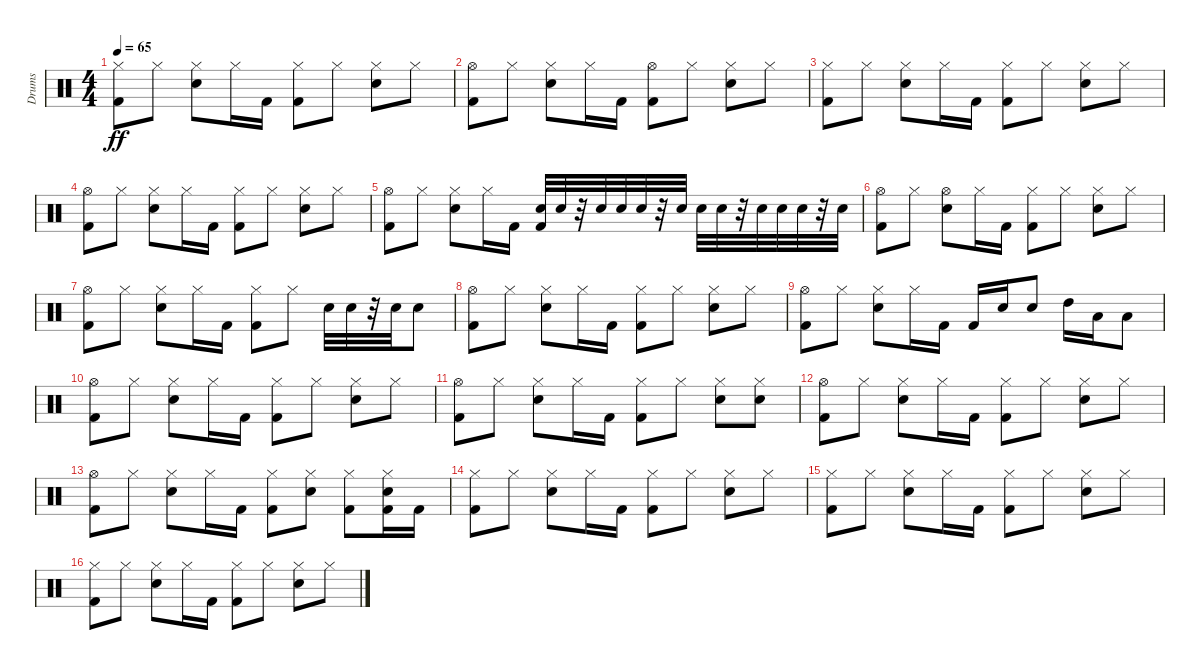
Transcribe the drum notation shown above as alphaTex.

\track ("Drums" "Drums") {instrument percussion}
\staff {score}
\articulation defaults
\ts (4 4)
\tempo 65
\clef neutral
\ks c
("Hi-Hat (closed)" "Kick (hit) 2").8{dy ff} "Hi-Hat (closed)".8 ("Snare (hit) 2" "Hi-Hat (closed)").8 "Hi-Hat (closed)".16 "Kick (hit) 2".16 ("Hi-Hat (closed)" "Kick (hit) 2").8 "Hi-Hat (closed)".8 ("Hi-Hat (closed)" "Snare (hit) 2").8 "Hi-Hat (closed)".8 |
("Hi-Hat (open)" "Kick (hit) 2").8 "Hi-Hat (closed)".8 ("Snare (hit) 2" "Hi-Hat (closed)").8 "Hi-Hat (closed)".16 "Kick (hit) 2".16 ("Hi-Hat (open)" "Kick (hit) 2").8 "Hi-Hat (closed)".8 ("Hi-Hat (closed)" "Snare (hit) 2").8 "Hi-Hat (closed)".8 |
("Hi-Hat (closed)" "Kick (hit) 2").8 "Hi-Hat (closed)".8 ("Snare (hit) 2" "Hi-Hat (closed)").8 "Hi-Hat (closed)".16 "Kick (hit) 2".16 ("Hi-Hat (closed)" "Kick (hit) 2").8 "Hi-Hat (closed)".8 ("Hi-Hat (closed)" "Snare (hit) 2").8 "Hi-Hat (closed)".8 |
("Hi-Hat (open)" "Kick (hit) 2").8 "Hi-Hat (closed)".8 ("Snare (hit) 2" "Hi-Hat (closed)").8 "Hi-Hat (closed)".16 "Kick (hit) 2".16 ("Hi-Hat (closed)" "Kick (hit) 2").8 "Hi-Hat (closed)".8 ("Hi-Hat (closed)" "Snare (hit) 2").8 "Hi-Hat (closed)".8 |
("Hi-Hat (open)" "Kick (hit) 2").8 "Hi-Hat (closed)".8 ("Snare (hit) 2" "Hi-Hat (closed)").8 "Hi-Hat (closed)".16 "Kick (hit) 2".16 ("Electric Snare (hit)" "Kick (hit) 2").32 "Electric Snare (hit)".32 r.32 "Electric Snare (hit)".32 "Electric Snare (hit)".32 "Electric Snare (hit)".32 r.32 "Electric Snare (hit)".32 "Electric Snare (hit)".32 "Electric Snare (hit)".32 r.32 "Electric Snare (hit)".32 "Electric Snare (hit)".32 "Electric Snare (hit)".32 r.32 "Electric Snare (hit)".32 |
("Hi-Hat (open)" "Kick (hit) 2").8 "Hi-Hat (closed)".8 ("Hi-Hat (open)" "Snare (hit) 2").8 "Hi-Hat (closed)".16 "Kick (hit) 2".16 ("Hi-Hat (closed)" "Kick (hit) 2").8 "Hi-Hat (closed)".8 ("Hi-Hat (closed)" "Snare (hit) 2").8 "Hi-Hat (closed)".8 |
("Hi-Hat (open)" "Kick (hit) 2").8 "Hi-Hat (closed)".8 ("Snare (hit) 2" "Hi-Hat (closed)").8 "Hi-Hat (closed)".16 "Kick (hit) 2".16 ("Hi-Hat (closed)" "Kick (hit) 2").8 "Hi-Hat (closed)".8 "Snare (hit) 2".32 "Snare (hit) 2".32 r.32 "Snare (hit) 2".32 "Snare (hit) 2".8 |
("Hi-Hat (open)" "Kick (hit) 2").8 "Hi-Hat (closed)".8 ("Snare (hit) 2" "Hi-Hat (closed)").8 "Hi-Hat (closed)".16 "Kick (hit) 2".16 ("Hi-Hat (closed)" "Kick (hit) 2").8 "Hi-Hat (closed)".8 ("Hi-Hat (closed)" "Snare (hit) 2").8 "Hi-Hat (closed)".8 |
("Hi-Hat (open)" "Kick (hit) 2").8 "Hi-Hat (closed)".8 ("Snare (hit) 2" "Hi-Hat (closed)").8 "Hi-Hat (closed)".16 "Kick (hit) 2".16 "Kick (hit) 2".16 "Snare (hit) 2".16 "Snare (hit) 2".8 "High Tom (hit)".16 "Low Tom (hit)".16 "Low Floor Tom (hit)".8 |
("Hi-Hat (open)" "Kick (hit) 2").8 "Hi-Hat (closed)".8 ("Snare (hit) 2" "Hi-Hat (closed)").8 "Hi-Hat (closed)".16 "Kick (hit) 2".16 ("Hi-Hat (closed)" "Kick (hit) 2").8 "Hi-Hat (closed)".8 ("Hi-Hat (closed)" "Snare (hit) 2").8 "Hi-Hat (closed)".8 |
("Hi-Hat (open)" "Kick (hit) 2").8 "Hi-Hat (closed)".8 ("Snare (hit) 2" "Hi-Hat (closed)").8 "Hi-Hat (closed)".16 "Kick (hit) 2".16 ("Hi-Hat (closed)" "Kick (hit) 2").8 "Hi-Hat (closed)".8 ("Hi-Hat (closed)" "Snare (hit) 2").8 ("Snare (hit) 2" "Hi-Hat (closed)").8 |
("Hi-Hat (open)" "Kick (hit) 2").8 "Hi-Hat (closed)".8 ("Snare (hit) 2" "Hi-Hat (closed)").8 "Hi-Hat (closed)".16 "Kick (hit) 2".16 ("Hi-Hat (closed)" "Kick (hit) 2").8 "Hi-Hat (closed)".8 ("Hi-Hat (closed)" "Snare (hit) 2").8 "Hi-Hat (closed)".8 |
("Hi-Hat (open)" "Kick (hit) 2").8 "Hi-Hat (closed)".8 ("Snare (hit) 2" "Hi-Hat (closed)").8 "Hi-Hat (closed)".16 "Kick (hit) 2".16 ("Hi-Hat (closed)" "Kick (hit) 2").8 ("Snare (hit) 2" "Hi-Hat (closed)").8 ("Kick (hit) 2" "Hi-Hat (closed)").8 ("Kick (hit) 2" "Snare (hit) 2" "Hi-Hat (closed)").16 "Kick (hit) 2".16 |
("Hi-Hat (closed)" "Kick (hit) 2").8 "Hi-Hat (closed)".8 ("Snare (hit) 2" "Hi-Hat (closed)").8 "Hi-Hat (closed)".16 "Kick (hit) 2".16 ("Hi-Hat (closed)" "Kick (hit) 2").8 "Hi-Hat (closed)".8 ("Hi-Hat (closed)" "Snare (hit) 2").8 "Hi-Hat (closed)".8 |
("Hi-Hat (closed)" "Kick (hit) 2").8 "Hi-Hat (closed)".8 ("Snare (hit) 2" "Hi-Hat (closed)").8 "Hi-Hat (closed)".16 "Kick (hit) 2".16 ("Hi-Hat (closed)" "Kick (hit) 2").8 "Hi-Hat (closed)".8 ("Hi-Hat (closed)" "Snare (hit) 2").8 "Hi-Hat (closed)".8 |
("Hi-Hat (closed)" "Kick (hit) 2").8 "Hi-Hat (closed)".8 ("Snare (hit) 2" "Hi-Hat (closed)").8 "Hi-Hat (closed)".16 "Kick (hit) 2".16 ("Hi-Hat (closed)" "Kick (hit) 2").8 "Hi-Hat (closed)".8 ("Hi-Hat (closed)" "Snare (hit) 2").8 "Hi-Hat (closed)".8
